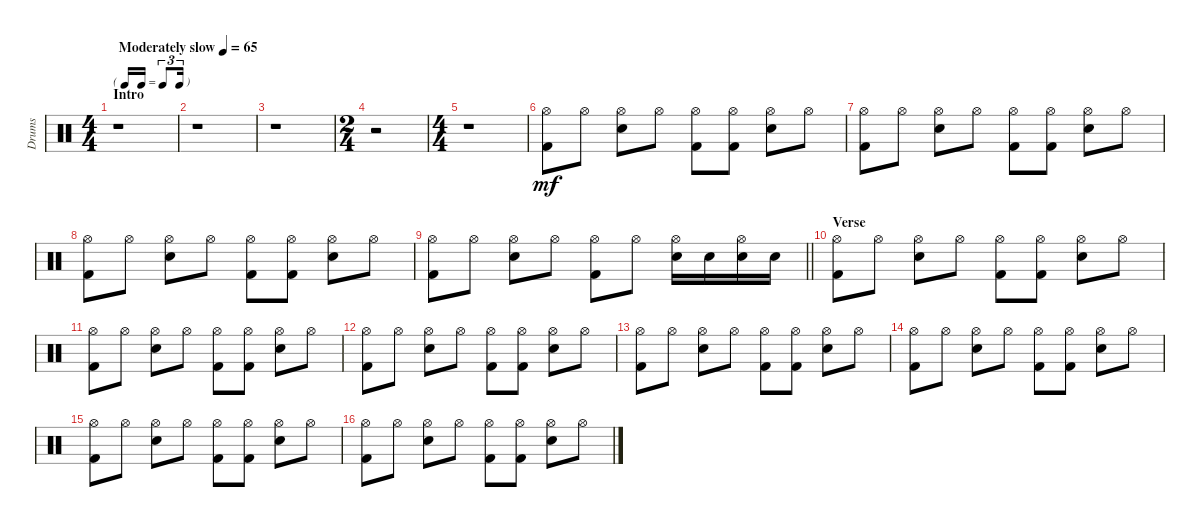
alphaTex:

\track ("Drums" "Drums") {instrument percussion}
\staff {score}
\articulation defaults
\ts (4 4)
\tf triplet16th
\section ("" "Intro")
\tempo (65 "Moderately slow")
\clef neutral
\ks aminor
r.1{dy mf} |
r.1 |
r.1 |
\ts (2 4)
r.2 |
\ts (4 4)
r.1 |
("Hi-Hat (open)" "Kick (hit) 2").8 "Hi-Hat (open)".8 ("Hi-Hat (open)" "Snare (hit) 2").8 "Hi-Hat (open)".8 ("Hi-Hat (open)" "Kick (hit) 2").8 ("Hi-Hat (open)" "Kick (hit) 2").8 ("Hi-Hat (open)" "Snare (hit) 2").8 "Hi-Hat (open)".8 |
("Hi-Hat (open)" "Kick (hit) 2").8 "Hi-Hat (open)".8 ("Hi-Hat (open)" "Snare (hit) 2").8 "Hi-Hat (open)".8 ("Hi-Hat (open)" "Kick (hit) 2").8 ("Hi-Hat (open)" "Kick (hit) 2").8 ("Hi-Hat (open)" "Snare (hit) 2").8 "Hi-Hat (open)".8 |
("Hi-Hat (open)" "Kick (hit) 2").8 "Hi-Hat (open)".8 ("Hi-Hat (open)" "Snare (hit) 2").8 "Hi-Hat (open)".8 ("Hi-Hat (open)" "Kick (hit) 2").8 ("Hi-Hat (open)" "Kick (hit) 2").8 ("Hi-Hat (open)" "Snare (hit) 2").8 "Hi-Hat (open)".8 |
\barLineRight lightlight
("Hi-Hat (open)" "Kick (hit) 2").8 "Hi-Hat (open)".8 ("Hi-Hat (open)" "Snare (hit) 2").8 "Hi-Hat (open)".8 ("Hi-Hat (open)" "Kick (hit) 2").8 "Hi-Hat (open)".8 ("Hi-Hat (open)" "Snare (hit) 2").16 "Snare (hit) 2".16 ("Hi-Hat (open)" "Snare (hit) 2").16 "Snare (hit) 2".16 |
\section ("" "Verse")
("Hi-Hat (open)" "Kick (hit) 2").8 "Hi-Hat (open)".8 ("Hi-Hat (open)" "Snare (hit) 2").8 "Hi-Hat (open)".8 ("Hi-Hat (open)" "Kick (hit) 2").8 ("Hi-Hat (open)" "Kick (hit) 2").8 ("Hi-Hat (open)" "Snare (hit) 2").8 "Hi-Hat (open)".8 |
("Hi-Hat (open)" "Kick (hit) 2").8 "Hi-Hat (open)".8 ("Hi-Hat (open)" "Snare (hit) 2").8 "Hi-Hat (open)".8 ("Hi-Hat (open)" "Kick (hit) 2").8 ("Hi-Hat (open)" "Kick (hit) 2").8 ("Hi-Hat (open)" "Snare (hit) 2").8 "Hi-Hat (open)".8 |
("Hi-Hat (open)" "Kick (hit) 2").8 "Hi-Hat (open)".8 ("Hi-Hat (open)" "Snare (hit) 2").8 "Hi-Hat (open)".8 ("Hi-Hat (open)" "Kick (hit) 2").8 ("Hi-Hat (open)" "Kick (hit) 2").8 ("Hi-Hat (open)" "Snare (hit) 2").8 "Hi-Hat (open)".8 |
("Hi-Hat (open)" "Kick (hit) 2").8 "Hi-Hat (open)".8 ("Hi-Hat (open)" "Snare (hit) 2").8 "Hi-Hat (open)".8 ("Hi-Hat (open)" "Kick (hit) 2").8 ("Hi-Hat (open)" "Kick (hit) 2").8 ("Hi-Hat (open)" "Snare (hit) 2").8 "Hi-Hat (open)".8 |
("Hi-Hat (open)" "Kick (hit) 2").8 "Hi-Hat (open)".8 ("Hi-Hat (open)" "Snare (hit) 2").8 "Hi-Hat (open)".8 ("Hi-Hat (open)" "Kick (hit) 2").8 ("Hi-Hat (open)" "Kick (hit) 2").8 ("Hi-Hat (open)" "Snare (hit) 2").8 "Hi-Hat (open)".8 |
("Hi-Hat (open)" "Kick (hit) 2").8 "Hi-Hat (open)".8 ("Hi-Hat (open)" "Snare (hit) 2").8 "Hi-Hat (open)".8 ("Hi-Hat (open)" "Kick (hit) 2").8 ("Hi-Hat (open)" "Kick (hit) 2").8 ("Hi-Hat (open)" "Snare (hit) 2").8 "Hi-Hat (open)".8 |
("Hi-Hat (open)" "Kick (hit) 2").8 "Hi-Hat (open)".8 ("Hi-Hat (open)" "Snare (hit) 2").8 "Hi-Hat (open)".8 ("Hi-Hat (open)" "Kick (hit) 2").8 ("Hi-Hat (open)" "Kick (hit) 2").8 ("Hi-Hat (open)" "Snare (hit) 2").8 "Hi-Hat (open)".8
